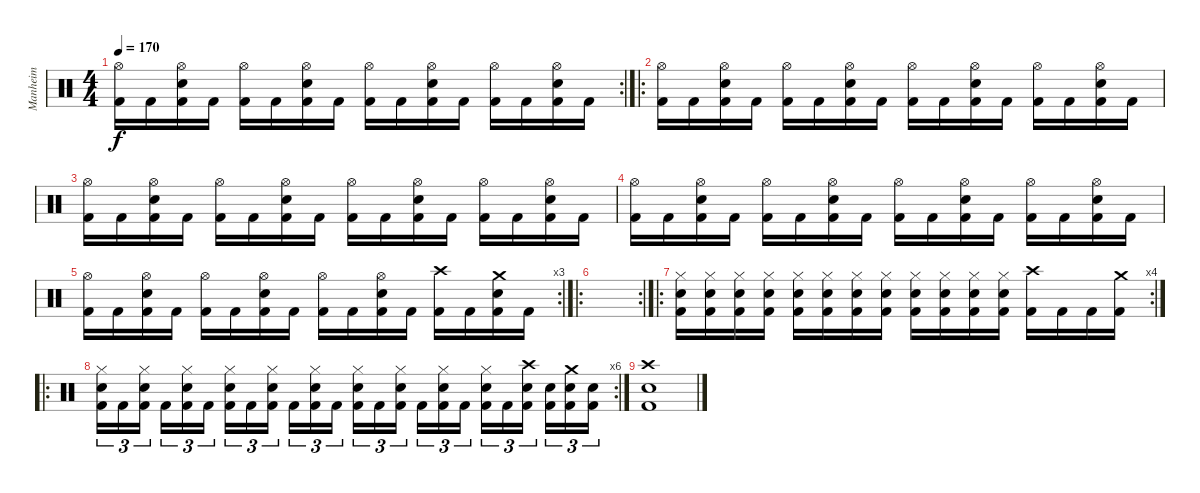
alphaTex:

\track ("Manheim" "Manheim") {instrument percussion}
\staff {score}
\articulation defaults
\rc 2
\ts (4 4)
\tempo 170
\clef neutral
\ks c
("Hi-Hat (open)" "Kick (hit) 2").16{dy f} "Kick (hit) 2".16 ("Hi-Hat (open)" "Snare (hit) 2" "Kick (hit) 2").16 "Kick (hit) 2".16 ("Hi-Hat (open)" "Kick (hit) 2").16 "Kick (hit) 2".16 ("Hi-Hat (open)" "Snare (hit) 2" "Kick (hit) 2").16 "Kick (hit) 2".16 ("Hi-Hat (open)" "Kick (hit) 2").16 "Kick (hit) 2".16 ("Hi-Hat (open)" "Snare (hit) 2" "Kick (hit) 2").16 "Kick (hit) 2".16 ("Hi-Hat (open)" "Kick (hit) 2").16 "Kick (hit) 2".16 ("Hi-Hat (open)" "Snare (hit) 2" "Kick (hit) 2").16 "Kick (hit) 2".16 |
\ro
("Hi-Hat (open)" "Kick (hit) 2").16 "Kick (hit) 2".16 ("Hi-Hat (open)" "Snare (hit) 2" "Kick (hit) 2").16 "Kick (hit) 2".16 ("Hi-Hat (open)" "Kick (hit) 2").16 "Kick (hit) 2".16 ("Hi-Hat (open)" "Snare (hit) 2" "Kick (hit) 2").16 "Kick (hit) 2".16 ("Hi-Hat (open)" "Kick (hit) 2").16 "Kick (hit) 2".16 ("Hi-Hat (open)" "Snare (hit) 2" "Kick (hit) 2").16 "Kick (hit) 2".16 ("Hi-Hat (open)" "Kick (hit) 2").16 "Kick (hit) 2".16 ("Hi-Hat (open)" "Snare (hit) 2" "Kick (hit) 2").16 "Kick (hit) 2".16 |
("Hi-Hat (open)" "Kick (hit) 2").16 "Kick (hit) 2".16 ("Hi-Hat (open)" "Snare (hit) 2" "Kick (hit) 2").16 "Kick (hit) 2".16 ("Hi-Hat (open)" "Kick (hit) 2").16 "Kick (hit) 2".16 ("Hi-Hat (open)" "Snare (hit) 2" "Kick (hit) 2").16 "Kick (hit) 2".16 ("Hi-Hat (open)" "Kick (hit) 2").16 "Kick (hit) 2".16 ("Hi-Hat (open)" "Snare (hit) 2" "Kick (hit) 2").16 "Kick (hit) 2".16 ("Hi-Hat (open)" "Kick (hit) 2").16 "Kick (hit) 2".16 ("Hi-Hat (open)" "Snare (hit) 2" "Kick (hit) 2").16 "Kick (hit) 2".16 |
("Hi-Hat (open)" "Kick (hit) 2").16 "Kick (hit) 2".16 ("Hi-Hat (open)" "Snare (hit) 2" "Kick (hit) 2").16 "Kick (hit) 2".16 ("Hi-Hat (open)" "Kick (hit) 2").16 "Kick (hit) 2".16 ("Hi-Hat (open)" "Snare (hit) 2" "Kick (hit) 2").16 "Kick (hit) 2".16 ("Hi-Hat (open)" "Kick (hit) 2").16 "Kick (hit) 2".16 ("Hi-Hat (open)" "Snare (hit) 2" "Kick (hit) 2").16 "Kick (hit) 2".16 ("Hi-Hat (open)" "Kick (hit) 2").16 "Kick (hit) 2".16 ("Hi-Hat (open)" "Snare (hit) 2" "Kick (hit) 2").16 "Kick (hit) 2".16 |
\rc 3
("Hi-Hat (open)" "Kick (hit) 2").16 "Kick (hit) 2".16 ("Hi-Hat (open)" "Snare (hit) 2" "Kick (hit) 2").16 "Kick (hit) 2".16 ("Hi-Hat (open)" "Kick (hit) 2").16 "Kick (hit) 2".16 ("Hi-Hat (open)" "Snare (hit) 2" "Kick (hit) 2").16 "Kick (hit) 2".16 ("Hi-Hat (open)" "Kick (hit) 2").16 "Kick (hit) 2".16 ("Hi-Hat (open)" "Snare (hit) 2" "Kick (hit) 2").16 "Kick (hit) 2".16 ("Crash high (hit)" "Kick (hit) 2").16 "Kick (hit) 2".16 ("Crash medium (hit)" "Snare (hit) 2" "Kick (hit) 2").16 "Kick (hit) 2".16 |
\ro
\rc 2
|
\ro
\rc 4
("Hi-Hat (closed)" "Snare (hit) 2" "Kick (hit) 2").16 ("Hi-Hat (closed)" "Snare (hit) 2" "Kick (hit) 2").16 ("Hi-Hat (closed)" "Snare (hit) 2" "Kick (hit) 2").16 ("Hi-Hat (closed)" "Snare (hit) 2" "Kick (hit) 2").16 ("Hi-Hat (closed)" "Snare (hit) 2" "Kick (hit) 2").16 ("Hi-Hat (closed)" "Snare (hit) 2" "Kick (hit) 2").16 ("Hi-Hat (closed)" "Snare (hit) 2" "Kick (hit) 2").16 ("Hi-Hat (closed)" "Snare (hit) 2" "Kick (hit) 2").16 ("Hi-Hat (closed)" "Snare (hit) 2" "Kick (hit) 2").16 ("Hi-Hat (closed)" "Snare (hit) 2" "Kick (hit) 2").16 ("Hi-Hat (closed)" "Snare (hit) 2" "Kick (hit) 2").16 ("Hi-Hat (closed)" "Snare (hit) 2" "Kick (hit) 2").16 ("Crash high (hit)" "Kick (hit) 2").16 "Kick (hit) 2".16 "Kick (hit) 2".16 ("Crash medium (hit)" "Kick (hit) 2").16 |
\ro
\rc 6
("Hi-Hat (closed)" "Snare (hit) 2" "Kick (hit) 2").16{tu (3 2)} "Kick (hit) 2".16{tu (3 2)} ("Hi-Hat (closed)" "Snare (hit) 2" "Kick (hit) 2").16{tu (3 2)} "Kick (hit) 2".16{tu (3 2)} ("Hi-Hat (closed)" "Snare (hit) 2" "Kick (hit) 2").16{tu (3 2)} "Kick (hit) 2".16{tu (3 2)} ("Hi-Hat (closed)" "Snare (hit) 2" "Kick (hit) 2").16{tu (3 2)} "Kick (hit) 2".16{tu (3 2)} ("Hi-Hat (closed)" "Snare (hit) 2" "Kick (hit) 2").16{tu (3 2)} "Kick (hit) 2".16{tu (3 2)} ("Hi-Hat (closed)" "Snare (hit) 2" "Kick (hit) 2").16{tu (3 2)} "Kick (hit) 2".16{tu (3 2)} ("Hi-Hat (closed)" "Snare (hit) 2" "Kick (hit) 2").16{tu (3 2)} "Kick (hit) 2".16{tu (3 2)} ("Hi-Hat (closed)" "Snare (hit) 2" "Kick (hit) 2").16{tu (3 2)} "Kick (hit) 2".16{tu (3 2)} ("Hi-Hat (closed)" "Snare (hit) 2" "Kick (hit) 2").16{tu (3 2)} "Kick (hit) 2".16{tu (3 2)} ("Hi-Hat (closed)" "Snare (hit) 2" "Kick (hit) 2").16{tu (3 2)} "Kick (hit) 2".16{tu (3 2)} ("Crash high (hit)" "Snare (hit) 2" "Kick (hit) 2").16{tu (3 2)} ("Snare (hit) 2" "Kick (hit) 2").16{tu (3 2)} ("Crash medium (hit)" "Snare (hit) 2" "Kick (hit) 2").16{tu (3 2)} ("Snare (hit) 2" "Kick (hit) 2").16{tu (3 2)} |
("Crash high (hit)" "Snare (hit) 2" "Kick (hit) 2").1
